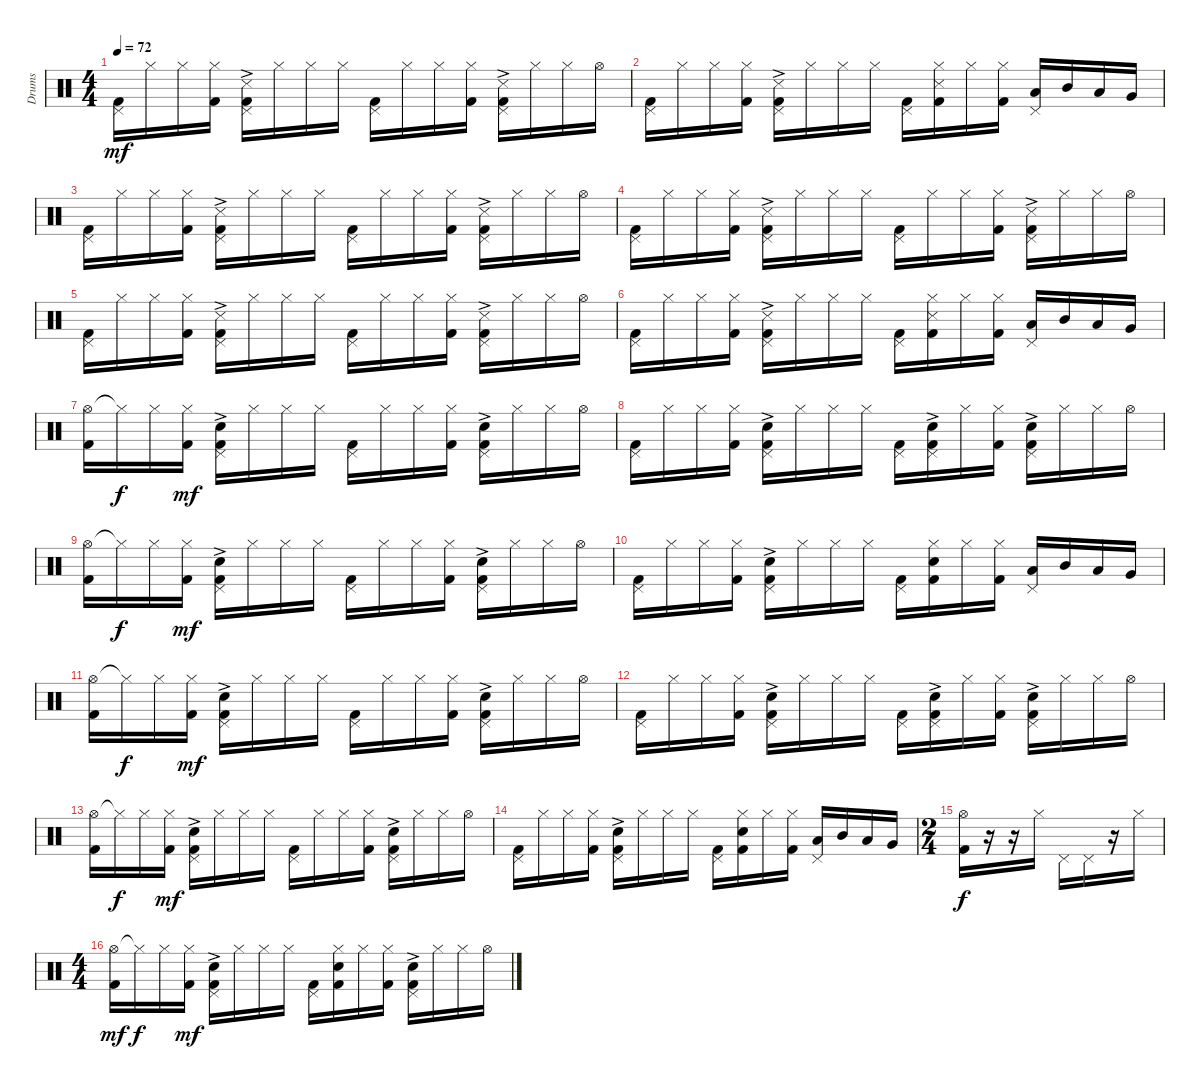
\track ("Drums" "Drums") {instrument percussion}
\staff {score}
\articulation defaults
\ts (4 4)
\tempo 72
\clef neutral
\ks c
("Pedal Hi-Hat (hit)" "Kick (hit) 2").16{dy mf} "Hi-Hat (closed)".16 "Hi-Hat (closed)".16 ("Hi-Hat (closed)" "Kick (hit) 2").16 ("Pedal Hi-Hat (hit)" "Snare (side stick) 3"{ac} "Kick (hit) 2").16 "Hi-Hat (closed)".16 "Hi-Hat (closed)".16 "Hi-Hat (closed)".16 ("Pedal Hi-Hat (hit)" "Kick (hit) 2").16 "Hi-Hat (closed)".16 "Hi-Hat (closed)".16 ("Hi-Hat (closed)" "Kick (hit) 2").16 ("Pedal Hi-Hat (hit)" "Snare (side stick) 3"{ac} "Kick (hit) 2").16 "Hi-Hat (closed)".16 "Hi-Hat (closed)".16 "Hi-Hat (open)".16 |
("Pedal Hi-Hat (hit)" "Kick (hit) 2").16 "Hi-Hat (closed)".16 "Hi-Hat (closed)".16 ("Hi-Hat (closed)" "Kick (hit) 2").16 ("Pedal Hi-Hat (hit)" "Snare (side stick) 3"{ac} "Kick (hit) 2").16 "Hi-Hat (closed)".16 "Hi-Hat (closed)".16 "Hi-Hat (closed)".16 ("Pedal Hi-Hat (hit)" "Kick (hit) 2").16 ("Hi-Hat (closed)" "Snare (side stick) 3" "Kick (hit) 2").16 "Hi-Hat (closed)".16 ("Hi-Hat (closed)" "Kick (hit) 2").16 ("Pedal Hi-Hat (hit)" "Low Tom (hit)").16 "Mid Tom (hit)".16 "Low Tom (hit)".16 "Very Low Tom (hit)".16 |
("Pedal Hi-Hat (hit)" "Kick (hit) 2").16 "Hi-Hat (closed)".16 "Hi-Hat (closed)".16 ("Hi-Hat (closed)" "Kick (hit) 2").16 ("Pedal Hi-Hat (hit)" "Snare (side stick) 3"{ac} "Kick (hit) 2").16 "Hi-Hat (closed)".16 "Hi-Hat (closed)".16 "Hi-Hat (closed)".16 ("Pedal Hi-Hat (hit)" "Kick (hit) 2").16 "Hi-Hat (closed)".16 "Hi-Hat (closed)".16 ("Hi-Hat (closed)" "Kick (hit) 2").16 ("Pedal Hi-Hat (hit)" "Snare (side stick) 3"{ac} "Kick (hit) 2").16 "Hi-Hat (closed)".16 "Hi-Hat (closed)".16 "Hi-Hat (open)".16 |
("Pedal Hi-Hat (hit)" "Kick (hit) 2").16 "Hi-Hat (closed)".16 "Hi-Hat (closed)".16 ("Hi-Hat (closed)" "Kick (hit) 2").16 ("Pedal Hi-Hat (hit)" "Snare (side stick) 3"{ac} "Kick (hit) 2").16 "Hi-Hat (closed)".16 "Hi-Hat (closed)".16 "Hi-Hat (closed)".16 ("Pedal Hi-Hat (hit)" "Kick (hit) 2").16 "Hi-Hat (closed)".16 "Hi-Hat (closed)".16 ("Hi-Hat (closed)" "Kick (hit) 2").16 ("Pedal Hi-Hat (hit)" "Snare (side stick) 3"{ac} "Kick (hit) 2").16 "Hi-Hat (closed)".16 "Hi-Hat (closed)".16 "Hi-Hat (open)".16 |
("Pedal Hi-Hat (hit)" "Kick (hit) 2").16 "Hi-Hat (closed)".16 "Hi-Hat (closed)".16 ("Hi-Hat (closed)" "Kick (hit) 2").16 ("Pedal Hi-Hat (hit)" "Snare (side stick) 3"{ac} "Kick (hit) 2").16 "Hi-Hat (closed)".16 "Hi-Hat (closed)".16 "Hi-Hat (closed)".16 ("Pedal Hi-Hat (hit)" "Kick (hit) 2").16 "Hi-Hat (closed)".16 "Hi-Hat (closed)".16 ("Hi-Hat (closed)" "Kick (hit) 2").16 ("Pedal Hi-Hat (hit)" "Snare (side stick) 3"{ac} "Kick (hit) 2").16 "Hi-Hat (closed)".16 "Hi-Hat (closed)".16 "Hi-Hat (open)".16 |
("Pedal Hi-Hat (hit)" "Kick (hit) 2").16 "Hi-Hat (closed)".16 "Hi-Hat (closed)".16 ("Hi-Hat (closed)" "Kick (hit) 2").16 ("Pedal Hi-Hat (hit)" "Snare (side stick) 3"{ac} "Kick (hit) 2").16 "Hi-Hat (closed)".16 "Hi-Hat (closed)".16 "Hi-Hat (closed)".16 ("Pedal Hi-Hat (hit)" "Kick (hit) 2").16 ("Hi-Hat (closed)" "Snare (side stick) 3" "Kick (hit) 2").16 "Hi-Hat (closed)".16 ("Hi-Hat (closed)" "Kick (hit) 2").16 ("Pedal Hi-Hat (hit)" "Low Tom (hit)").16 "Mid Tom (hit)".16 "Low Tom (hit)".16 "Very Low Tom (hit)".16 |
("Hi-Hat (open)" "Kick (hit) 2").16 "Hi-Hat (closed)"{t}.16{dy f} "Hi-Hat (closed)".16 ("Hi-Hat (closed)" "Kick (hit) 2").16{dy mf} ("Pedal Hi-Hat (hit)" "Electric Snare (hit)"{ac} "Kick (hit) 2").16 "Hi-Hat (closed)".16 "Hi-Hat (closed)".16 "Hi-Hat (closed)".16 ("Pedal Hi-Hat (hit)" "Kick (hit) 2").16 "Hi-Hat (closed)".16 "Hi-Hat (closed)".16 ("Hi-Hat (closed)" "Kick (hit) 2").16 ("Pedal Hi-Hat (hit)" "Electric Snare (hit)"{ac} "Kick (hit) 2").16 "Hi-Hat (closed)".16 "Hi-Hat (closed)".16 "Hi-Hat (open)".16 |
("Pedal Hi-Hat (hit)" "Kick (hit) 2").16 "Hi-Hat (closed)".16 "Hi-Hat (closed)".16 ("Hi-Hat (closed)" "Kick (hit) 2").16 ("Pedal Hi-Hat (hit)" "Electric Snare (hit)"{ac} "Kick (hit) 2").16 "Hi-Hat (closed)".16 "Hi-Hat (closed)".16 "Hi-Hat (closed)".16 ("Pedal Hi-Hat (hit)" "Kick (hit) 2").16 ("Pedal Hi-Hat (hit)" "Electric Snare (hit)"{ac} "Kick (hit) 2").16 "Hi-Hat (closed)".16 ("Hi-Hat (closed)" "Kick (hit) 2").16 ("Pedal Hi-Hat (hit)" "Electric Snare (hit)"{ac} "Kick (hit) 2").16 "Hi-Hat (closed)".16 "Hi-Hat (closed)".16 "Hi-Hat (open)".16 |
("Hi-Hat (open)" "Kick (hit) 2").16 "Hi-Hat (closed)"{t}.16{dy f} "Hi-Hat (closed)".16 ("Hi-Hat (closed)" "Kick (hit) 2").16{dy mf} ("Pedal Hi-Hat (hit)" "Electric Snare (hit)"{ac} "Kick (hit) 2").16 "Hi-Hat (closed)".16 "Hi-Hat (closed)".16 "Hi-Hat (closed)".16 ("Pedal Hi-Hat (hit)" "Kick (hit) 2").16 "Hi-Hat (closed)".16 "Hi-Hat (closed)".16 ("Hi-Hat (closed)" "Kick (hit) 2").16 ("Pedal Hi-Hat (hit)" "Electric Snare (hit)"{ac} "Kick (hit) 2").16 "Hi-Hat (closed)".16 "Hi-Hat (closed)".16 "Hi-Hat (open)".16 |
("Pedal Hi-Hat (hit)" "Kick (hit) 2").16 "Hi-Hat (closed)".16 "Hi-Hat (closed)".16 ("Hi-Hat (closed)" "Kick (hit) 2").16 ("Pedal Hi-Hat (hit)" "Electric Snare (hit)"{ac} "Kick (hit) 2").16 "Hi-Hat (closed)".16 "Hi-Hat (closed)".16 "Hi-Hat (closed)".16 ("Pedal Hi-Hat (hit)" "Kick (hit) 2").16 ("Hi-Hat (closed)" "Electric Snare (hit)" "Kick (hit) 2").16 "Hi-Hat (closed)".16 ("Hi-Hat (closed)" "Kick (hit) 2").16 ("Pedal Hi-Hat (hit)" "Low Tom (hit)").16 "Mid Tom (hit)".16 "Low Tom (hit)".16 "Very Low Tom (hit)".16 |
("Hi-Hat (open)" "Kick (hit) 2").16 "Hi-Hat (closed)"{t}.16{dy f} "Hi-Hat (closed)".16 ("Hi-Hat (closed)" "Kick (hit) 2").16{dy mf} ("Pedal Hi-Hat (hit)" "Electric Snare (hit)"{ac} "Kick (hit) 2").16 "Hi-Hat (closed)".16 "Hi-Hat (closed)".16 "Hi-Hat (closed)".16 ("Pedal Hi-Hat (hit)" "Kick (hit) 2").16 "Hi-Hat (closed)".16 "Hi-Hat (closed)".16 ("Hi-Hat (closed)" "Kick (hit) 2").16 ("Pedal Hi-Hat (hit)" "Electric Snare (hit)"{ac} "Kick (hit) 2").16 "Hi-Hat (closed)".16 "Hi-Hat (closed)".16 "Hi-Hat (open)".16 |
("Pedal Hi-Hat (hit)" "Kick (hit) 2").16 "Hi-Hat (closed)".16 "Hi-Hat (closed)".16 ("Hi-Hat (closed)" "Kick (hit) 2").16 ("Pedal Hi-Hat (hit)" "Electric Snare (hit)"{ac} "Kick (hit) 2").16 "Hi-Hat (closed)".16 "Hi-Hat (closed)".16 "Hi-Hat (closed)".16 ("Pedal Hi-Hat (hit)" "Kick (hit) 2").16 ("Pedal Hi-Hat (hit)" "Electric Snare (hit)"{ac} "Kick (hit) 2").16 "Hi-Hat (closed)".16 ("Hi-Hat (closed)" "Kick (hit) 2").16 ("Pedal Hi-Hat (hit)" "Electric Snare (hit)"{ac} "Kick (hit) 2").16 "Hi-Hat (closed)".16 "Hi-Hat (closed)".16 "Hi-Hat (open)".16 |
("Hi-Hat (open)" "Kick (hit) 2").16 "Hi-Hat (closed)"{t}.16{dy f} "Hi-Hat (closed)".16 ("Hi-Hat (closed)" "Kick (hit) 2").16{dy mf} ("Pedal Hi-Hat (hit)" "Electric Snare (hit)"{ac} "Kick (hit) 2").16 "Hi-Hat (closed)".16 "Hi-Hat (closed)".16 "Hi-Hat (closed)".16 ("Pedal Hi-Hat (hit)" "Kick (hit) 2").16 "Hi-Hat (closed)".16 "Hi-Hat (closed)".16 ("Hi-Hat (closed)" "Kick (hit) 2").16 ("Pedal Hi-Hat (hit)" "Electric Snare (hit)"{ac} "Kick (hit) 2").16 "Hi-Hat (closed)".16 "Hi-Hat (closed)".16 "Hi-Hat (open)".16 |
("Pedal Hi-Hat (hit)" "Kick (hit) 2").16 "Hi-Hat (closed)".16 "Hi-Hat (closed)".16 ("Hi-Hat (closed)" "Kick (hit) 2").16 ("Pedal Hi-Hat (hit)" "Electric Snare (hit)"{ac} "Kick (hit) 2").16 "Hi-Hat (closed)".16 "Hi-Hat (closed)".16 "Hi-Hat (closed)".16 ("Pedal Hi-Hat (hit)" "Kick (hit) 2").16 ("Hi-Hat (closed)" "Electric Snare (hit)" "Kick (hit) 2").16 "Hi-Hat (closed)".16 ("Hi-Hat (closed)" "Kick (hit) 2").16 ("Pedal Hi-Hat (hit)" "Low Tom (hit)").16 "Mid Tom (hit)".16 "Low Tom (hit)".16 "Very Low Tom (hit)".16 |
\ts (2 4)
("Kick (hit) 2" "Hi-Hat (open)").16{dy f} r.16 r.16 "Hi-Hat (closed)".16 "Pedal Hi-Hat (hit)".16 "Pedal Hi-Hat (hit)".16 r.16 "Hi-Hat (closed)".16 |
\ts (4 4)
("Hi-Hat (open)" "Kick (hit) 2").16{dy mf} "Hi-Hat (closed)"{t}.16{dy f} "Hi-Hat (closed)".16 ("Hi-Hat (closed)" "Kick (hit) 2").16{dy mf} ("Pedal Hi-Hat (hit)" "Electric Snare (hit)"{ac} "Kick (hit) 2").16 "Hi-Hat (closed)".16 "Hi-Hat (closed)".16 "Hi-Hat (closed)".16 ("Pedal Hi-Hat (hit)" "Kick (hit) 2").16 ("Hi-Hat (closed)" "Electric Snare (hit)" "Kick (hit) 2").16 "Hi-Hat (closed)".16 ("Hi-Hat (closed)" "Kick (hit) 2").16 ("Pedal Hi-Hat (hit)" "Electric Snare (hit)"{ac} "Kick (hit) 2").16 "Hi-Hat (closed)".16 "Hi-Hat (closed)".16 "Hi-Hat (open)".16
